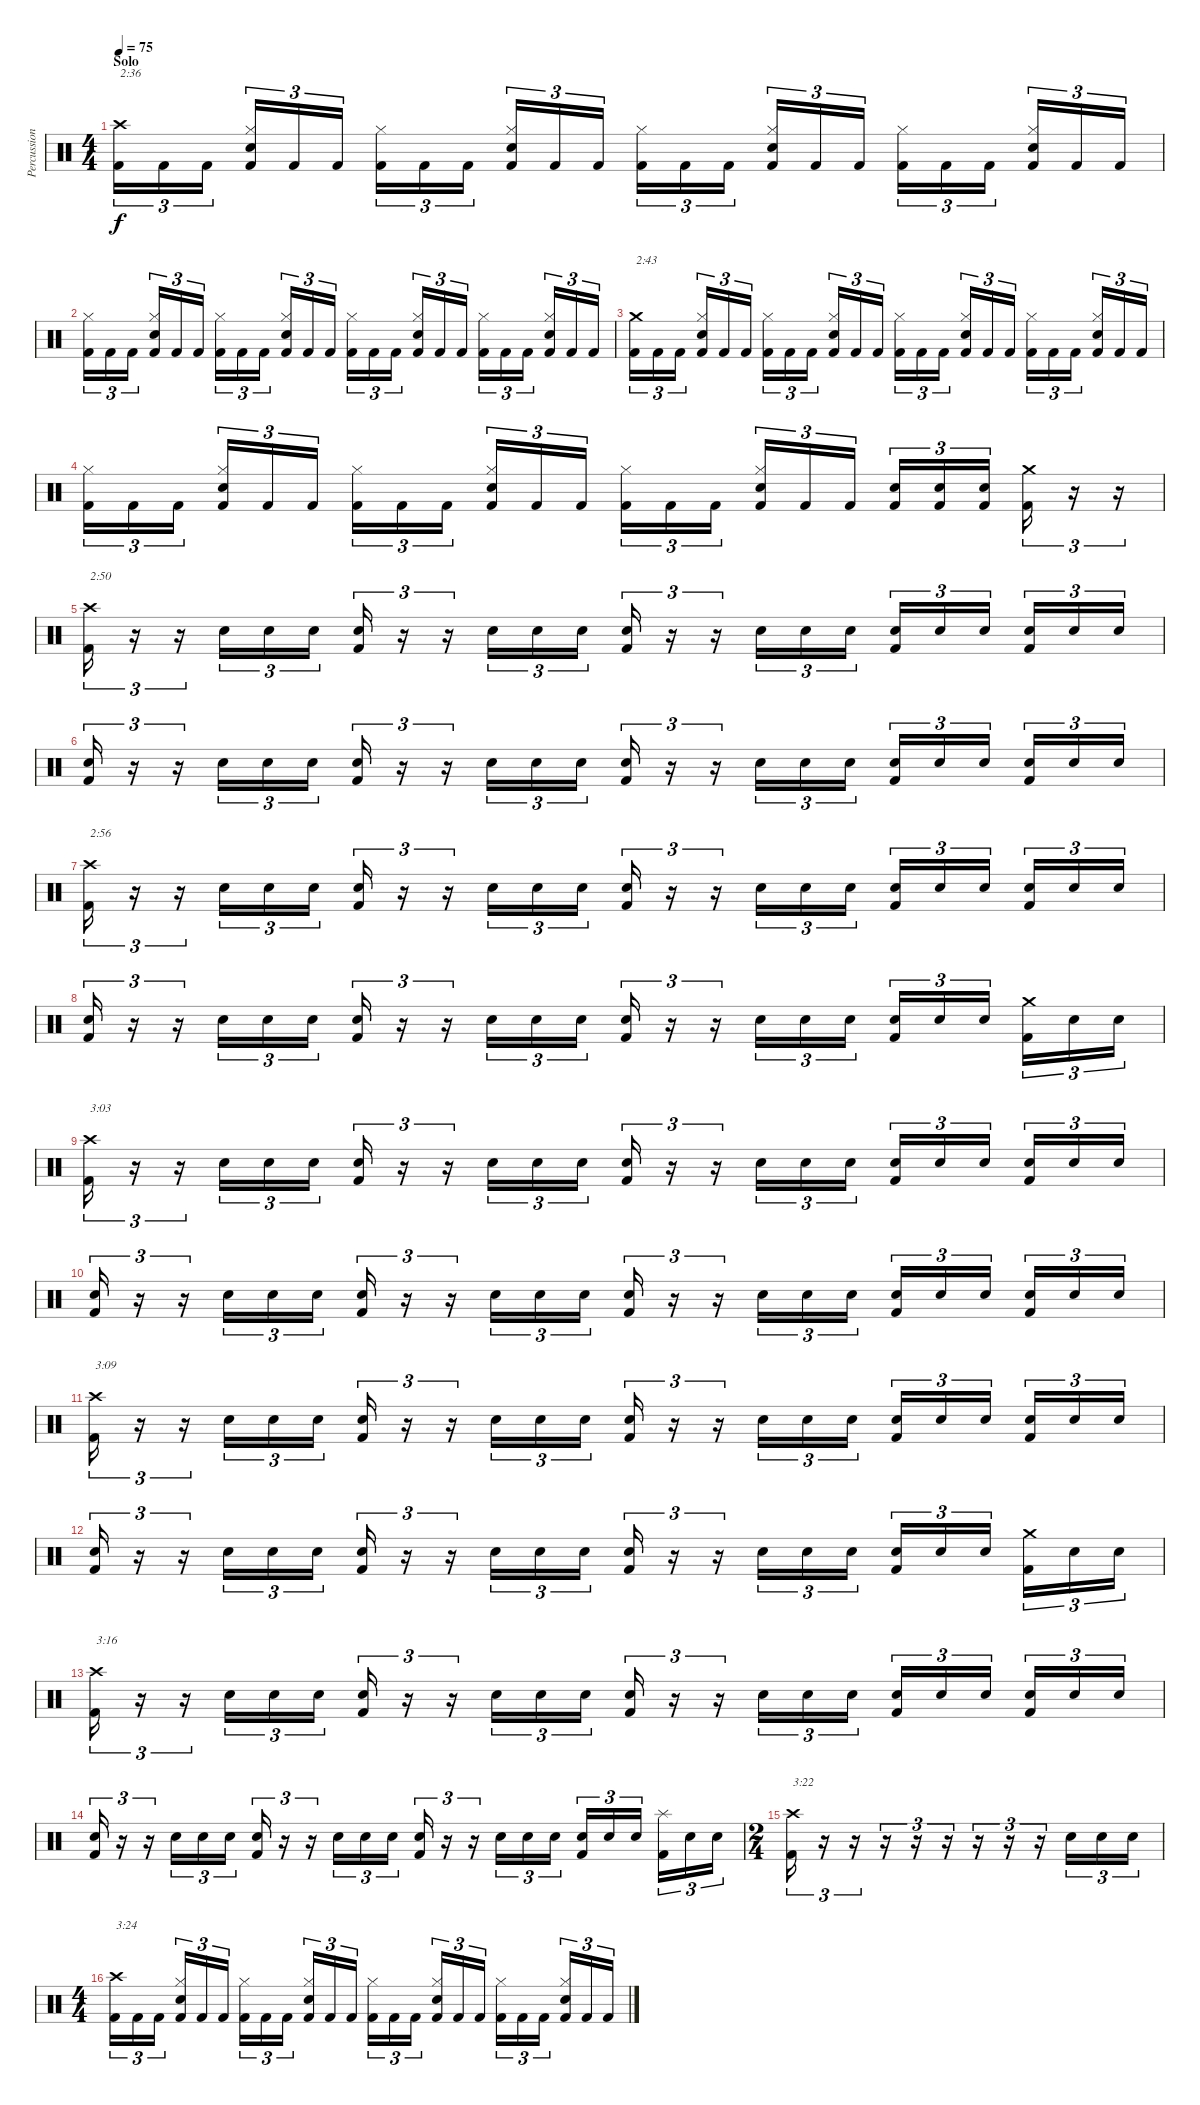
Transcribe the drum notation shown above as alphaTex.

\track ("Percussion" "Percussion") {instrument percussion}
\staff {score}
\articulation defaults
\ts (4 4)
\section ("" "Solo")
\tempo 75
\clef neutral
\ks c
("Crash high (hit)" "Kick (hit) 2").16{tu (3 2) txt "2:36" dy f} "Kick (hit) 2".16{tu (3 2)} "Kick (hit) 2".16{tu (3 2)} ("Hi-Hat (closed)" "Snare (hit) 2" "Kick (hit) 2").16{tu (3 2)} "Kick (hit) 2".16{tu (3 2)} "Kick (hit) 2".16{tu (3 2)} ("Hi-Hat (closed)" "Kick (hit) 2").16{tu (3 2)} "Kick (hit) 2".16{tu (3 2)} "Kick (hit) 2".16{tu (3 2)} ("Hi-Hat (closed)" "Snare (hit) 2" "Kick (hit) 2").16{tu (3 2)} "Kick (hit) 2".16{tu (3 2)} "Kick (hit) 2".16{tu (3 2)} ("Hi-Hat (closed)" "Kick (hit) 2").16{tu (3 2)} "Kick (hit) 2".16{tu (3 2)} "Kick (hit) 2".16{tu (3 2)} ("Hi-Hat (closed)" "Snare (hit) 2" "Kick (hit) 2").16{tu (3 2)} "Kick (hit) 2".16{tu (3 2)} "Kick (hit) 2".16{tu (3 2)} ("Hi-Hat (closed)" "Kick (hit) 2").16{tu (3 2)} "Kick (hit) 2".16{tu (3 2)} "Kick (hit) 2".16{tu (3 2)} ("Hi-Hat (closed)" "Snare (hit) 2" "Kick (hit) 2").16{tu (3 2)} "Kick (hit) 2".16{tu (3 2)} "Kick (hit) 2".16{tu (3 2)} |
("Hi-Hat (closed)" "Kick (hit) 2").16{tu (3 2)} "Kick (hit) 2".16{tu (3 2)} "Kick (hit) 2".16{tu (3 2)} ("Hi-Hat (closed)" "Snare (hit) 2" "Kick (hit) 2").16{tu (3 2)} "Kick (hit) 2".16{tu (3 2)} "Kick (hit) 2".16{tu (3 2)} ("Hi-Hat (closed)" "Kick (hit) 2").16{tu (3 2)} "Kick (hit) 2".16{tu (3 2)} "Kick (hit) 2".16{tu (3 2)} ("Hi-Hat (closed)" "Snare (hit) 2" "Kick (hit) 2").16{tu (3 2)} "Kick (hit) 2".16{tu (3 2)} "Kick (hit) 2".16{tu (3 2)} ("Hi-Hat (closed)" "Kick (hit) 2").16{tu (3 2)} "Kick (hit) 2".16{tu (3 2)} "Kick (hit) 2".16{tu (3 2)} ("Hi-Hat (closed)" "Snare (hit) 2" "Kick (hit) 2").16{tu (3 2)} "Kick (hit) 2".16{tu (3 2)} "Kick (hit) 2".16{tu (3 2)} ("Hi-Hat (closed)" "Kick (hit) 2").16{tu (3 2)} "Kick (hit) 2".16{tu (3 2)} "Kick (hit) 2".16{tu (3 2)} ("Hi-Hat (closed)" "Snare (hit) 2" "Kick (hit) 2").16{tu (3 2)} "Kick (hit) 2".16{tu (3 2)} "Kick (hit) 2".16{tu (3 2)} |
("Crash medium (hit)" "Kick (hit) 2").16{tu (3 2) txt "2:43"} "Kick (hit) 2".16{tu (3 2)} "Kick (hit) 2".16{tu (3 2)} ("Hi-Hat (closed)" "Snare (hit) 2" "Kick (hit) 2").16{tu (3 2)} "Kick (hit) 2".16{tu (3 2)} "Kick (hit) 2".16{tu (3 2)} ("Hi-Hat (closed)" "Kick (hit) 2").16{tu (3 2)} "Kick (hit) 2".16{tu (3 2)} "Kick (hit) 2".16{tu (3 2)} ("Hi-Hat (closed)" "Snare (hit) 2" "Kick (hit) 2").16{tu (3 2)} "Kick (hit) 2".16{tu (3 2)} "Kick (hit) 2".16{tu (3 2)} ("Hi-Hat (closed)" "Kick (hit) 2").16{tu (3 2)} "Kick (hit) 2".16{tu (3 2)} "Kick (hit) 2".16{tu (3 2)} ("Hi-Hat (closed)" "Snare (hit) 2" "Kick (hit) 2").16{tu (3 2)} "Kick (hit) 2".16{tu (3 2)} "Kick (hit) 2".16{tu (3 2)} ("Hi-Hat (closed)" "Kick (hit) 2").16{tu (3 2)} "Kick (hit) 2".16{tu (3 2)} "Kick (hit) 2".16{tu (3 2)} ("Hi-Hat (closed)" "Snare (hit) 2" "Kick (hit) 2").16{tu (3 2)} "Kick (hit) 2".16{tu (3 2)} "Kick (hit) 2".16{tu (3 2)} |
("Hi-Hat (closed)" "Kick (hit) 2").16{tu (3 2)} "Kick (hit) 2".16{tu (3 2)} "Kick (hit) 2".16{tu (3 2)} ("Hi-Hat (closed)" "Snare (hit) 2" "Kick (hit) 2").16{tu (3 2)} "Kick (hit) 2".16{tu (3 2)} "Kick (hit) 2".16{tu (3 2)} ("Hi-Hat (closed)" "Kick (hit) 2").16{tu (3 2)} "Kick (hit) 2".16{tu (3 2)} "Kick (hit) 2".16{tu (3 2)} ("Hi-Hat (closed)" "Snare (hit) 2" "Kick (hit) 2").16{tu (3 2)} "Kick (hit) 2".16{tu (3 2)} "Kick (hit) 2".16{tu (3 2)} ("Hi-Hat (closed)" "Kick (hit) 2").16{tu (3 2)} "Kick (hit) 2".16{tu (3 2)} "Kick (hit) 2".16{tu (3 2)} ("Hi-Hat (closed)" "Snare (hit) 2" "Kick (hit) 2").16{tu (3 2)} "Kick (hit) 2".16{tu (3 2)} "Kick (hit) 2".16{tu (3 2)} ("Snare (hit) 2" "Kick (hit) 2").16{tu (3 2)} ("Snare (hit) 2" "Kick (hit) 2").16{tu (3 2)} ("Snare (hit) 2" "Kick (hit) 2").16{tu (3 2)} ("Crash medium (hit)" "Kick (hit) 2").16{tu (3 2)} r.16{tu (3 2)} r.16{tu (3 2)} |
("Crash high (hit)" "Kick (hit) 2").16{tu (3 2) txt "2:50"} r.16{tu (3 2)} r.16{tu (3 2)} "Snare (hit) 2".16{tu (3 2)} "Snare (hit) 2".16{tu (3 2)} "Snare (hit) 2".16{tu (3 2)} ("Snare (hit) 2" "Kick (hit) 2").16{tu (3 2)} r.16{tu (3 2)} r.16{tu (3 2)} "Snare (hit) 2".16{tu (3 2)} "Snare (hit) 2".16{tu (3 2)} "Snare (hit) 2".16{tu (3 2)} ("Snare (hit) 2" "Kick (hit) 2").16{tu (3 2)} r.16{tu (3 2)} r.16{tu (3 2)} "Snare (hit) 2".16{tu (3 2)} "Snare (hit) 2".16{tu (3 2)} "Snare (hit) 2".16{tu (3 2)} ("Snare (hit) 2" "Kick (hit) 2").16{tu (3 2)} "Snare (hit) 2".16{tu (3 2)} "Snare (hit) 2".16{tu (3 2)} ("Snare (hit) 2" "Kick (hit) 2").16{tu (3 2)} "Snare (hit) 2".16{tu (3 2)} "Snare (hit) 2".16{tu (3 2)} |
("Snare (hit) 2" "Kick (hit) 2").16{tu (3 2)} r.16{tu (3 2)} r.16{tu (3 2)} "Snare (hit) 2".16{tu (3 2)} "Snare (hit) 2".16{tu (3 2)} "Snare (hit) 2".16{tu (3 2)} ("Snare (hit) 2" "Kick (hit) 2").16{tu (3 2)} r.16{tu (3 2)} r.16{tu (3 2)} "Snare (hit) 2".16{tu (3 2)} "Snare (hit) 2".16{tu (3 2)} "Snare (hit) 2".16{tu (3 2)} ("Snare (hit) 2" "Kick (hit) 2").16{tu (3 2)} r.16{tu (3 2)} r.16{tu (3 2)} "Snare (hit) 2".16{tu (3 2)} "Snare (hit) 2".16{tu (3 2)} "Snare (hit) 2".16{tu (3 2)} ("Snare (hit) 2" "Kick (hit) 2").16{tu (3 2)} "Snare (hit) 2".16{tu (3 2)} "Snare (hit) 2".16{tu (3 2)} ("Snare (hit) 2" "Kick (hit) 2").16{tu (3 2)} "Snare (hit) 2".16{tu (3 2)} "Snare (hit) 2".16{tu (3 2)} |
("Crash high (hit)" "Kick (hit) 2").16{tu (3 2) txt "2:56"} r.16{tu (3 2)} r.16{tu (3 2)} "Snare (hit) 2".16{tu (3 2)} "Snare (hit) 2".16{tu (3 2)} "Snare (hit) 2".16{tu (3 2)} ("Snare (hit) 2" "Kick (hit) 2").16{tu (3 2)} r.16{tu (3 2)} r.16{tu (3 2)} "Snare (hit) 2".16{tu (3 2)} "Snare (hit) 2".16{tu (3 2)} "Snare (hit) 2".16{tu (3 2)} ("Snare (hit) 2" "Kick (hit) 2").16{tu (3 2)} r.16{tu (3 2)} r.16{tu (3 2)} "Snare (hit) 2".16{tu (3 2)} "Snare (hit) 2".16{tu (3 2)} "Snare (hit) 2".16{tu (3 2)} ("Snare (hit) 2" "Kick (hit) 2").16{tu (3 2)} "Snare (hit) 2".16{tu (3 2)} "Snare (hit) 2".16{tu (3 2)} ("Snare (hit) 2" "Kick (hit) 2").16{tu (3 2)} "Snare (hit) 2".16{tu (3 2)} "Snare (hit) 2".16{tu (3 2)} |
("Snare (hit) 2" "Kick (hit) 2").16{tu (3 2)} r.16{tu (3 2)} r.16{tu (3 2)} "Snare (hit) 2".16{tu (3 2)} "Snare (hit) 2".16{tu (3 2)} "Snare (hit) 2".16{tu (3 2)} ("Snare (hit) 2" "Kick (hit) 2").16{tu (3 2)} r.16{tu (3 2)} r.16{tu (3 2)} "Snare (hit) 2".16{tu (3 2)} "Snare (hit) 2".16{tu (3 2)} "Snare (hit) 2".16{tu (3 2)} ("Snare (hit) 2" "Kick (hit) 2").16{tu (3 2)} r.16{tu (3 2)} r.16{tu (3 2)} "Snare (hit) 2".16{tu (3 2)} "Snare (hit) 2".16{tu (3 2)} "Snare (hit) 2".16{tu (3 2)} ("Snare (hit) 2" "Kick (hit) 2").16{tu (3 2)} "Snare (hit) 2".16{tu (3 2)} "Snare (hit) 2".16{tu (3 2)} ("Crash medium (hit)" "Kick (hit) 2").16{tu (3 2)} "Snare (hit) 2".16{tu (3 2)} "Snare (hit) 2".16{tu (3 2)} |
("Crash high (hit)" "Kick (hit) 2").16{tu (3 2) txt "3:03"} r.16{tu (3 2)} r.16{tu (3 2)} "Snare (hit) 2".16{tu (3 2)} "Snare (hit) 2".16{tu (3 2)} "Snare (hit) 2".16{tu (3 2)} ("Snare (hit) 2" "Kick (hit) 2").16{tu (3 2)} r.16{tu (3 2)} r.16{tu (3 2)} "Snare (hit) 2".16{tu (3 2)} "Snare (hit) 2".16{tu (3 2)} "Snare (hit) 2".16{tu (3 2)} ("Snare (hit) 2" "Kick (hit) 2").16{tu (3 2)} r.16{tu (3 2)} r.16{tu (3 2)} "Snare (hit) 2".16{tu (3 2)} "Snare (hit) 2".16{tu (3 2)} "Snare (hit) 2".16{tu (3 2)} ("Snare (hit) 2" "Kick (hit) 2").16{tu (3 2)} "Snare (hit) 2".16{tu (3 2)} "Snare (hit) 2".16{tu (3 2)} ("Snare (hit) 2" "Kick (hit) 2").16{tu (3 2)} "Snare (hit) 2".16{tu (3 2)} "Snare (hit) 2".16{tu (3 2)} |
("Snare (hit) 2" "Kick (hit) 2").16{tu (3 2)} r.16{tu (3 2)} r.16{tu (3 2)} "Snare (hit) 2".16{tu (3 2)} "Snare (hit) 2".16{tu (3 2)} "Snare (hit) 2".16{tu (3 2)} ("Snare (hit) 2" "Kick (hit) 2").16{tu (3 2)} r.16{tu (3 2)} r.16{tu (3 2)} "Snare (hit) 2".16{tu (3 2)} "Snare (hit) 2".16{tu (3 2)} "Snare (hit) 2".16{tu (3 2)} ("Snare (hit) 2" "Kick (hit) 2").16{tu (3 2)} r.16{tu (3 2)} r.16{tu (3 2)} "Snare (hit) 2".16{tu (3 2)} "Snare (hit) 2".16{tu (3 2)} "Snare (hit) 2".16{tu (3 2)} ("Snare (hit) 2" "Kick (hit) 2").16{tu (3 2)} "Snare (hit) 2".16{tu (3 2)} "Snare (hit) 2".16{tu (3 2)} ("Snare (hit) 2" "Kick (hit) 2").16{tu (3 2)} "Snare (hit) 2".16{tu (3 2)} "Snare (hit) 2".16{tu (3 2)} |
("Crash high (hit)" "Kick (hit) 2").16{tu (3 2) txt "3:09"} r.16{tu (3 2)} r.16{tu (3 2)} "Snare (hit) 2".16{tu (3 2)} "Snare (hit) 2".16{tu (3 2)} "Snare (hit) 2".16{tu (3 2)} ("Snare (hit) 2" "Kick (hit) 2").16{tu (3 2)} r.16{tu (3 2)} r.16{tu (3 2)} "Snare (hit) 2".16{tu (3 2)} "Snare (hit) 2".16{tu (3 2)} "Snare (hit) 2".16{tu (3 2)} ("Snare (hit) 2" "Kick (hit) 2").16{tu (3 2)} r.16{tu (3 2)} r.16{tu (3 2)} "Snare (hit) 2".16{tu (3 2)} "Snare (hit) 2".16{tu (3 2)} "Snare (hit) 2".16{tu (3 2)} ("Snare (hit) 2" "Kick (hit) 2").16{tu (3 2)} "Snare (hit) 2".16{tu (3 2)} "Snare (hit) 2".16{tu (3 2)} ("Snare (hit) 2" "Kick (hit) 2").16{tu (3 2)} "Snare (hit) 2".16{tu (3 2)} "Snare (hit) 2".16{tu (3 2)} |
("Snare (hit) 2" "Kick (hit) 2").16{tu (3 2)} r.16{tu (3 2)} r.16{tu (3 2)} "Snare (hit) 2".16{tu (3 2)} "Snare (hit) 2".16{tu (3 2)} "Snare (hit) 2".16{tu (3 2)} ("Snare (hit) 2" "Kick (hit) 2").16{tu (3 2)} r.16{tu (3 2)} r.16{tu (3 2)} "Snare (hit) 2".16{tu (3 2)} "Snare (hit) 2".16{tu (3 2)} "Snare (hit) 2".16{tu (3 2)} ("Snare (hit) 2" "Kick (hit) 2").16{tu (3 2)} r.16{tu (3 2)} r.16{tu (3 2)} "Snare (hit) 2".16{tu (3 2)} "Snare (hit) 2".16{tu (3 2)} "Snare (hit) 2".16{tu (3 2)} ("Snare (hit) 2" "Kick (hit) 2").16{tu (3 2)} "Snare (hit) 2".16{tu (3 2)} "Snare (hit) 2".16{tu (3 2)} ("Crash medium (hit)" "Kick (hit) 2").16{tu (3 2)} "Snare (hit) 2".16{tu (3 2)} "Snare (hit) 2".16{tu (3 2)} |
("Crash high (hit)" "Kick (hit) 2").16{tu (3 2) txt "3:16"} r.16{tu (3 2)} r.16{tu (3 2)} "Snare (hit) 2".16{tu (3 2)} "Snare (hit) 2".16{tu (3 2)} "Snare (hit) 2".16{tu (3 2)} ("Snare (hit) 2" "Kick (hit) 2").16{tu (3 2)} r.16{tu (3 2)} r.16{tu (3 2)} "Snare (hit) 2".16{tu (3 2)} "Snare (hit) 2".16{tu (3 2)} "Snare (hit) 2".16{tu (3 2)} ("Snare (hit) 2" "Kick (hit) 2").16{tu (3 2)} r.16{tu (3 2)} r.16{tu (3 2)} "Snare (hit) 2".16{tu (3 2)} "Snare (hit) 2".16{tu (3 2)} "Snare (hit) 2".16{tu (3 2)} ("Snare (hit) 2" "Kick (hit) 2").16{tu (3 2)} "Snare (hit) 2".16{tu (3 2)} "Snare (hit) 2".16{tu (3 2)} ("Snare (hit) 2" "Kick (hit) 2").16{tu (3 2)} "Snare (hit) 2".16{tu (3 2)} "Snare (hit) 2".16{tu (3 2)} |
("Snare (hit) 2" "Kick (hit) 2").16{tu (3 2)} r.16{tu (3 2)} r.16{tu (3 2)} "Snare (hit) 2".16{tu (3 2)} "Snare (hit) 2".16{tu (3 2)} "Snare (hit) 2".16{tu (3 2)} ("Snare (hit) 2" "Kick (hit) 2").16{tu (3 2)} r.16{tu (3 2)} r.16{tu (3 2)} "Snare (hit) 2".16{tu (3 2)} "Snare (hit) 2".16{tu (3 2)} "Snare (hit) 2".16{tu (3 2)} ("Snare (hit) 2" "Kick (hit) 2").16{tu (3 2)} r.16{tu (3 2)} r.16{tu (3 2)} "Snare (hit) 2".16{tu (3 2)} "Snare (hit) 2".16{tu (3 2)} "Snare (hit) 2".16{tu (3 2)} ("Snare (hit) 2" "Kick (hit) 2").16{tu (3 2)} "Snare (hit) 2".16{tu (3 2)} "Snare (hit) 2".16{tu (3 2)} ("Splash (hit)" "Kick (hit) 2").16{tu (3 2)} "Snare (hit) 2".16{tu (3 2)} "Snare (hit) 2".16{tu (3 2)} |
\ts (2 4)
("Crash high (hit)" "Kick (hit) 2").16{tu (3 2) txt "3:22"} r.16{tu (3 2)} r.16{tu (3 2)} r.16{tu (3 2)} r.16{tu (3 2)} r.16{tu (3 2)} r.16{tu (3 2)} r.16{tu (3 2)} r.16{tu (3 2)} "Snare (hit) 2".16{tu (3 2)} "Snare (hit) 2".16{tu (3 2)} "Snare (hit) 2".16{tu (3 2)} |
\ts (4 4)
("Crash high (hit)" "Kick (hit) 2").16{tu (3 2) txt "3:24"} "Kick (hit) 2".16{tu (3 2)} "Kick (hit) 2".16{tu (3 2)} ("Hi-Hat (closed)" "Snare (hit) 2" "Kick (hit) 2").16{tu (3 2)} "Kick (hit) 2".16{tu (3 2)} "Kick (hit) 2".16{tu (3 2)} ("Hi-Hat (closed)" "Kick (hit) 2").16{tu (3 2)} "Kick (hit) 2".16{tu (3 2)} "Kick (hit) 2".16{tu (3 2)} ("Hi-Hat (closed)" "Snare (hit) 2" "Kick (hit) 2").16{tu (3 2)} "Kick (hit) 2".16{tu (3 2)} "Kick (hit) 2".16{tu (3 2)} ("Hi-Hat (closed)" "Kick (hit) 2").16{tu (3 2)} "Kick (hit) 2".16{tu (3 2)} "Kick (hit) 2".16{tu (3 2)} ("Hi-Hat (closed)" "Snare (hit) 2" "Kick (hit) 2").16{tu (3 2)} "Kick (hit) 2".16{tu (3 2)} "Kick (hit) 2".16{tu (3 2)} ("Hi-Hat (closed)" "Kick (hit) 2").16{tu (3 2)} "Kick (hit) 2".16{tu (3 2)} "Kick (hit) 2".16{tu (3 2)} ("Hi-Hat (closed)" "Snare (hit) 2" "Kick (hit) 2").16{tu (3 2)} "Kick (hit) 2".16{tu (3 2)} "Kick (hit) 2".16{tu (3 2)}
